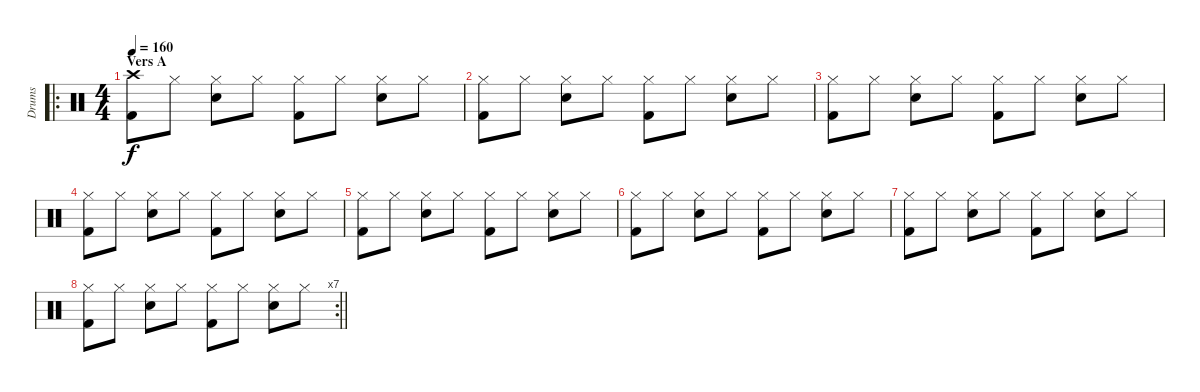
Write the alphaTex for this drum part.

\track ("Drums" "Drums") {instrument percussion}
\staff {score}
\articulation defaults
\ro
\ts (4 4)
\section ("" "Vers A")
\tempo 160
\clef neutral
\ks c
("Crash high (hit)" "Kick (hit) 2").8{dy f} "Hi-Hat (closed)".8 ("Hi-Hat (closed)" "Snare (hit) 2").8 "Hi-Hat (closed)".8 ("Hi-Hat (closed)" "Kick (hit) 2").8 "Hi-Hat (closed)".8 ("Hi-Hat (closed)" "Snare (hit) 2").8 "Hi-Hat (closed)".8 |
("Hi-Hat (closed)" "Kick (hit) 2").8 "Hi-Hat (closed)".8 ("Hi-Hat (closed)" "Snare (hit) 2").8 "Hi-Hat (closed)".8 ("Hi-Hat (closed)" "Kick (hit) 2").8 "Hi-Hat (closed)".8 ("Hi-Hat (closed)" "Snare (hit) 2").8 "Hi-Hat (closed)".8 |
("Hi-Hat (closed)" "Kick (hit) 2").8 "Hi-Hat (closed)".8 ("Hi-Hat (closed)" "Snare (hit) 2").8 "Hi-Hat (closed)".8 ("Hi-Hat (closed)" "Kick (hit) 2").8 "Hi-Hat (closed)".8 ("Hi-Hat (closed)" "Snare (hit) 2").8 "Hi-Hat (closed)".8 |
("Hi-Hat (closed)" "Kick (hit) 2").8 "Hi-Hat (closed)".8 ("Hi-Hat (closed)" "Snare (hit) 2").8 "Hi-Hat (closed)".8 ("Hi-Hat (closed)" "Kick (hit) 2").8 "Hi-Hat (closed)".8 ("Hi-Hat (closed)" "Snare (hit) 2").8 "Hi-Hat (closed)".8 |
("Hi-Hat (closed)" "Kick (hit) 2").8 "Hi-Hat (closed)".8 ("Hi-Hat (closed)" "Snare (hit) 2").8 "Hi-Hat (closed)".8 ("Hi-Hat (closed)" "Kick (hit) 2").8 "Hi-Hat (closed)".8 ("Hi-Hat (closed)" "Snare (hit) 2").8 "Hi-Hat (closed)".8 |
("Hi-Hat (closed)" "Kick (hit) 2").8 "Hi-Hat (closed)".8 ("Hi-Hat (closed)" "Snare (hit) 2").8 "Hi-Hat (closed)".8 ("Hi-Hat (closed)" "Kick (hit) 2").8 "Hi-Hat (closed)".8 ("Hi-Hat (closed)" "Snare (hit) 2").8 "Hi-Hat (closed)".8 |
("Hi-Hat (closed)" "Kick (hit) 2").8 "Hi-Hat (closed)".8 ("Hi-Hat (closed)" "Snare (hit) 2").8 "Hi-Hat (closed)".8 ("Hi-Hat (closed)" "Kick (hit) 2").8 "Hi-Hat (closed)".8 ("Hi-Hat (closed)" "Snare (hit) 2").8 "Hi-Hat (closed)".8 |
\rc 7
\barLineRight lightlight
("Hi-Hat (closed)" "Kick (hit) 2").8 "Hi-Hat (closed)".8 ("Hi-Hat (closed)" "Snare (hit) 2").8 "Hi-Hat (closed)".8 ("Hi-Hat (closed)" "Kick (hit) 2").8 "Hi-Hat (closed)".8 ("Hi-Hat (closed)" "Snare (hit) 2").8 "Hi-Hat (closed)".8
